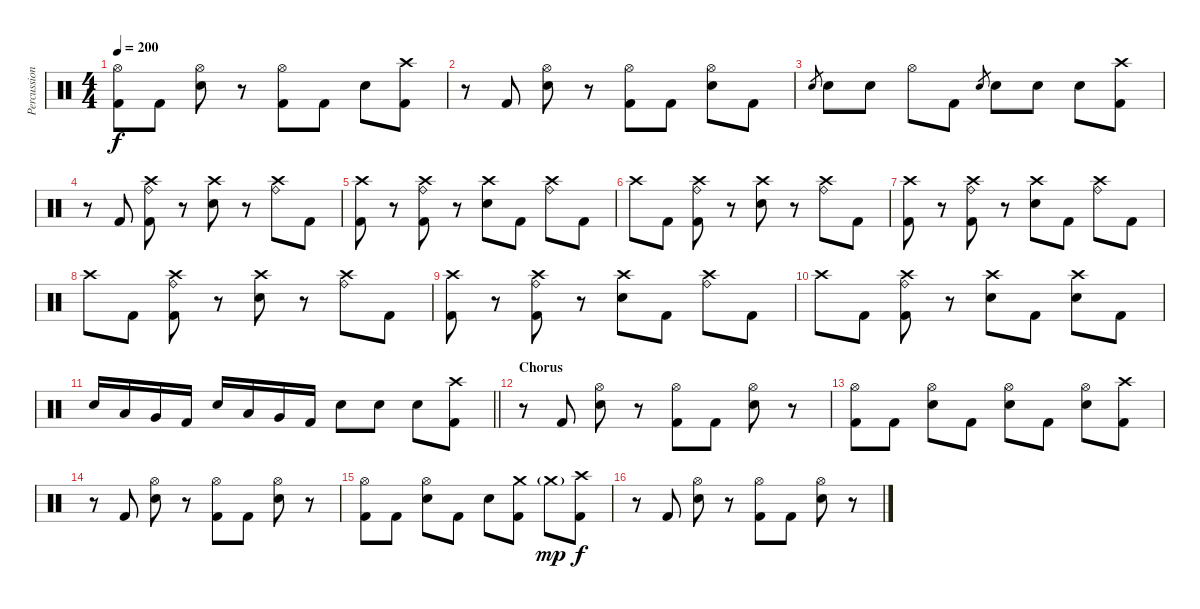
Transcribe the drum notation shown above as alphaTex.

\track ("Percussion" "Percussion") {instrument percussion}
\staff {score}
\articulation defaults
\ts (4 4)
\tempo 200
\clef neutral
\ks c
("Hi-Hat (open)" "Kick (hit) 2").8{dy f} "Kick (hit) 2".8 ("Hi-Hat (open)" "Electric Snare (hit)").8 r.8 ("Hi-Hat (open)" "Kick (hit) 2").8 "Kick (hit) 2".8 "Electric Snare (hit)".8 ("Crash high (hit)" "Kick (hit) 2").8 |
r.8 "Kick (hit) 2".8 ("Hi-Hat (open)" "Electric Snare (hit)").8 r.8 ("Hi-Hat (open)" "Kick (hit) 2").8 "Kick (hit) 2".8 ("Hi-Hat (open)" "Electric Snare (hit)").8 "Kick (hit) 2".8 |
"Electric Snare (hit)".8{gr} "Electric Snare (hit)".8 "Electric Snare (hit)".8 "Hi-Hat (open)".8 "Kick (hit) 2".8 "Electric Snare (hit)".8{gr} "Electric Snare (hit)".8 "Electric Snare (hit)".8 "Electric Snare (hit)".8 ("Crash high (hit)" "Kick (hit) 2").8 |
r.8 "Kick (hit) 2".8 ("Crash high (hit)" "Ride (bell)" "Kick (hit) 2").8 r.8 ("Crash high (hit)" "Electric Snare (hit)").8 r.8 ("Crash high (hit)" "Ride (bell)").8 "Kick (hit) 2".8 |
("Crash high (hit)" "Kick (hit) 2").8 r.8 ("Crash high (hit)" "Ride (bell)" "Kick (hit) 2").8 r.8 ("Crash high (hit)" "Electric Snare (hit)").8 "Kick (hit) 2".8 ("Crash high (hit)" "Ride (bell)").8 "Kick (hit) 2".8 |
"Crash high (hit)".8 "Kick (hit) 2".8 ("Crash high (hit)" "Ride (bell)" "Kick (hit) 2").8 r.8 ("Crash high (hit)" "Electric Snare (hit)").8 r.8 ("Crash high (hit)" "Ride (bell)").8 "Kick (hit) 2".8 |
("Crash high (hit)" "Kick (hit) 2").8 r.8 ("Crash high (hit)" "Ride (bell)" "Kick (hit) 2").8 r.8 ("Crash high (hit)" "Electric Snare (hit)").8 "Kick (hit) 2".8 ("Crash high (hit)" "Ride (bell)").8 "Kick (hit) 2".8 |
"Crash high (hit)".8 "Kick (hit) 2".8 ("Crash high (hit)" "Ride (bell)" "Kick (hit) 2").8 r.8 ("Crash high (hit)" "Electric Snare (hit)").8 r.8 ("Crash high (hit)" "Ride (bell)").8 "Kick (hit) 2".8 |
("Crash high (hit)" "Kick (hit) 2").8 r.8 ("Crash high (hit)" "Ride (bell)" "Kick (hit) 2").8 r.8 ("Crash high (hit)" "Electric Snare (hit)").8 "Kick (hit) 2".8 ("Crash high (hit)" "Ride (bell)").8 "Kick (hit) 2".8 |
"Crash high (hit)".8 "Kick (hit) 2".8 ("Crash high (hit)" "Ride (bell)" "Kick (hit) 2").8 r.8 ("Crash high (hit)" "Electric Snare (hit)").8 "Kick (hit) 2".8 ("Crash high (hit)" "Electric Snare (hit)").8 "Kick (hit) 2".8 |
\barLineRight lightlight "Electric Snare (hit)".16 "Low Tom (hit)".16 "Very Low Tom (hit)".16 "Kick (hit) 2".16 "Electric Snare (hit)".16 "Low Tom (hit)".16 "Very Low Tom (hit)".16 "Kick (hit) 2".16 "Electric Snare (hit)".8 "Electric Snare (hit)".8 "Electric Snare (hit)".8
("Crash high (hit)" "Kick (hit) 2").8 |
\section ("" "Chorus")
r.8 "Kick (hit) 2".8 ("Hi-Hat (open)" "Electric Snare (hit)").8 r.8 ("Hi-Hat (open)" "Kick (hit) 2").8 "Kick (hit) 2".8 ("Hi-Hat (open)" "Electric Snare (hit)").8 r.8 |
("Hi-Hat (open)" "Kick (hit) 2").8 "Kick (hit) 2".8 ("Hi-Hat (open)" "Electric Snare (hit)").8 "Kick (hit) 2".8 ("Hi-Hat (open)" "Electric Snare (hit)").8 "Kick (hit) 2".8 ("Hi-Hat (open)" "Electric Snare (hit)").8 ("Crash high (hit)" "Kick (hit) 2").8 |
r.8 "Kick (hit) 2".8 ("Hi-Hat (open)" "Electric Snare (hit)").8 r.8 ("Hi-Hat (open)" "Kick (hit) 2").8 "Kick (hit) 2".8 ("Hi-Hat (open)" "Electric Snare (hit)").8 r.8 |
("Hi-Hat (open)" "Kick (hit) 2").8 "Kick (hit) 2".8 ("Hi-Hat (open)" "Electric Snare (hit)").8 "Kick (hit) 2".8 "Electric Snare (hit)".8 ("Crash medium (hit)" "Kick (hit) 2").8 "Crash medium (hit)"{g}.8{dy mp volume 0} ("Crash high (hit)" "Kick (hit) 2").8{dy f volume 13} |
r.8 "Kick (hit) 2".8 ("Hi-Hat (open)" "Electric Snare (hit)").8 r.8 ("Hi-Hat (open)" "Kick (hit) 2").8 "Kick (hit) 2".8 ("Hi-Hat (open)" "Electric Snare (hit)").8 r.8
